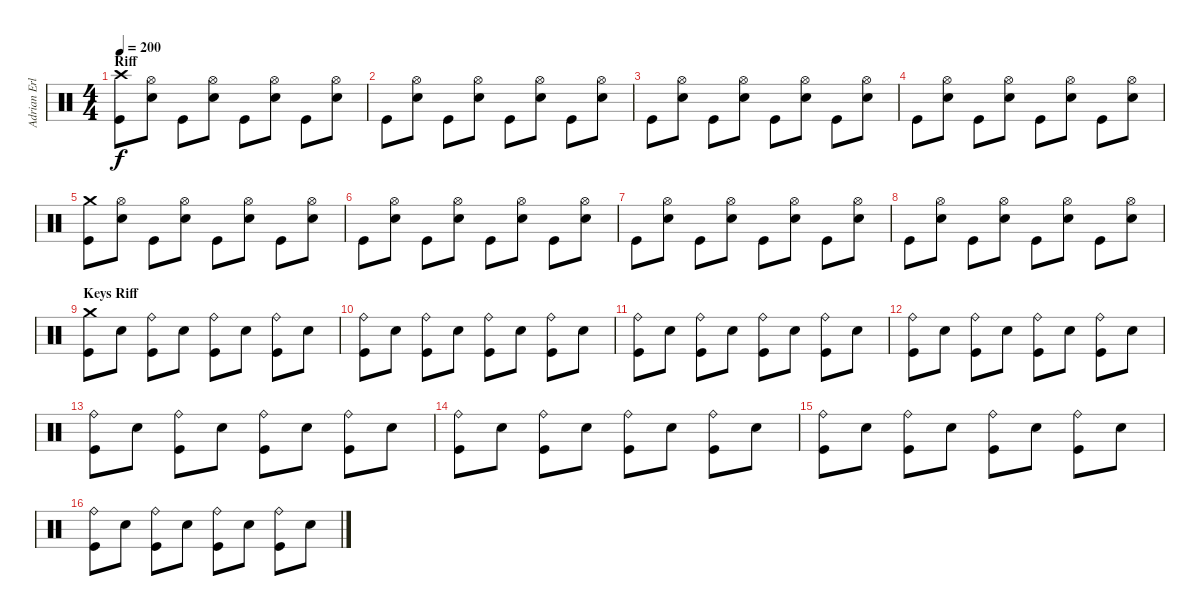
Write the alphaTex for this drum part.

\track ("Adrian Erlandsson" "Adrian Erl") {instrument percussion}
\staff {score}
\articulation defaults
\ts (4 4)
\section ("" "Riff")
\tempo 200
\clef neutral
\ks c
("Crash high (hit)" "Kick (hit)").8{dy f} ("Hi-Hat (open)" "Electric Snare (hit)").8 "Kick (hit)".8 ("Hi-Hat (open)" "Electric Snare (hit)").8 "Kick (hit)".8 ("Hi-Hat (open)" "Electric Snare (hit)").8 "Kick (hit)".8 ("Hi-Hat (open)" "Electric Snare (hit)").8 |
"Kick (hit)".8 ("Hi-Hat (open)" "Electric Snare (hit)").8 "Kick (hit)".8 ("Hi-Hat (open)" "Electric Snare (hit)").8 "Kick (hit)".8 ("Hi-Hat (open)" "Electric Snare (hit)").8 "Kick (hit)".8 ("Hi-Hat (open)" "Electric Snare (hit)").8 |
"Kick (hit)".8 ("Hi-Hat (open)" "Electric Snare (hit)").8 "Kick (hit)".8 ("Hi-Hat (open)" "Electric Snare (hit)").8 "Kick (hit)".8 ("Hi-Hat (open)" "Electric Snare (hit)").8 "Kick (hit)".8 ("Hi-Hat (open)" "Electric Snare (hit)").8 |
"Kick (hit)".8 ("Hi-Hat (open)" "Electric Snare (hit)").8 "Kick (hit)".8 ("Hi-Hat (open)" "Electric Snare (hit)").8 "Kick (hit)".8 ("Hi-Hat (open)" "Electric Snare (hit)").8 "Kick (hit)".8 ("Hi-Hat (open)" "Electric Snare (hit)").8 |
("Crash medium (hit)" "Kick (hit)").8 ("Hi-Hat (open)" "Electric Snare (hit)").8 "Kick (hit)".8 ("Hi-Hat (open)" "Electric Snare (hit)").8 "Kick (hit)".8 ("Hi-Hat (open)" "Electric Snare (hit)").8 "Kick (hit)".8 ("Hi-Hat (open)" "Electric Snare (hit)").8 |
"Kick (hit)".8 ("Hi-Hat (open)" "Electric Snare (hit)").8 "Kick (hit)".8 ("Hi-Hat (open)" "Electric Snare (hit)").8 "Kick (hit)".8 ("Hi-Hat (open)" "Electric Snare (hit)").8 "Kick (hit)".8 ("Hi-Hat (open)" "Electric Snare (hit)").8 |
"Kick (hit)".8 ("Hi-Hat (open)" "Electric Snare (hit)").8 "Kick (hit)".8 ("Hi-Hat (open)" "Electric Snare (hit)").8 "Kick (hit)".8 ("Hi-Hat (open)" "Electric Snare (hit)").8 "Kick (hit)".8 ("Hi-Hat (open)" "Electric Snare (hit)").8 |
"Kick (hit)".8 ("Hi-Hat (open)" "Electric Snare (hit)").8 "Kick (hit)".8 ("Hi-Hat (open)" "Electric Snare (hit)").8 "Kick (hit)".8 ("Hi-Hat (open)" "Electric Snare (hit)").8 "Kick (hit)".8 ("Hi-Hat (open)" "Electric Snare (hit)").8 |
\section ("" "Keys Riff")
("Crash medium (hit)" "Kick (hit)").8 "Electric Snare (hit)".8 ("Ride (bell)" "Kick (hit)").8 "Electric Snare (hit)".8 ("Ride (bell)" "Kick (hit)").8 "Electric Snare (hit)".8 ("Ride (bell)" "Kick (hit)").8 "Electric Snare (hit)".8 |
("Ride (bell)" "Kick (hit)").8 "Electric Snare (hit)".8 ("Ride (bell)" "Kick (hit)").8 "Electric Snare (hit)".8 ("Ride (bell)" "Kick (hit)").8 "Electric Snare (hit)".8 ("Ride (bell)" "Kick (hit)").8 "Electric Snare (hit)".8 |
("Ride (bell)" "Kick (hit)").8 "Electric Snare (hit)".8 ("Ride (bell)" "Kick (hit)").8 "Electric Snare (hit)".8 ("Ride (bell)" "Kick (hit)").8 "Electric Snare (hit)".8 ("Ride (bell)" "Kick (hit)").8 "Electric Snare (hit)".8 |
("Ride (bell)" "Kick (hit)").8 "Electric Snare (hit)".8 ("Ride (bell)" "Kick (hit)").8 "Electric Snare (hit)".8 ("Ride (bell)" "Kick (hit)").8 "Electric Snare (hit)".8 ("Ride (bell)" "Kick (hit)").8 "Electric Snare (hit)".8 |
("Ride (bell)" "Kick (hit)").8 "Electric Snare (hit)".8 ("Ride (bell)" "Kick (hit)").8 "Electric Snare (hit)".8 ("Ride (bell)" "Kick (hit)").8 "Electric Snare (hit)".8 ("Ride (bell)" "Kick (hit)").8 "Electric Snare (hit)".8 |
("Ride (bell)" "Kick (hit)").8 "Electric Snare (hit)".8 ("Ride (bell)" "Kick (hit)").8 "Electric Snare (hit)".8 ("Ride (bell)" "Kick (hit)").8 "Electric Snare (hit)".8 ("Ride (bell)" "Kick (hit)").8 "Electric Snare (hit)".8 |
("Ride (bell)" "Kick (hit)").8 "Electric Snare (hit)".8 ("Ride (bell)" "Kick (hit)").8 "Electric Snare (hit)".8 ("Ride (bell)" "Kick (hit)").8 "Electric Snare (hit)".8 ("Ride (bell)" "Kick (hit)").8 "Electric Snare (hit)".8 |
("Ride (bell)" "Kick (hit)").8 "Electric Snare (hit)".8 ("Ride (bell)" "Kick (hit)").8 "Electric Snare (hit)".8 ("Ride (bell)" "Kick (hit)").8 "Electric Snare (hit)".8 ("Ride (bell)" "Kick (hit)").8 "Electric Snare (hit)".8
